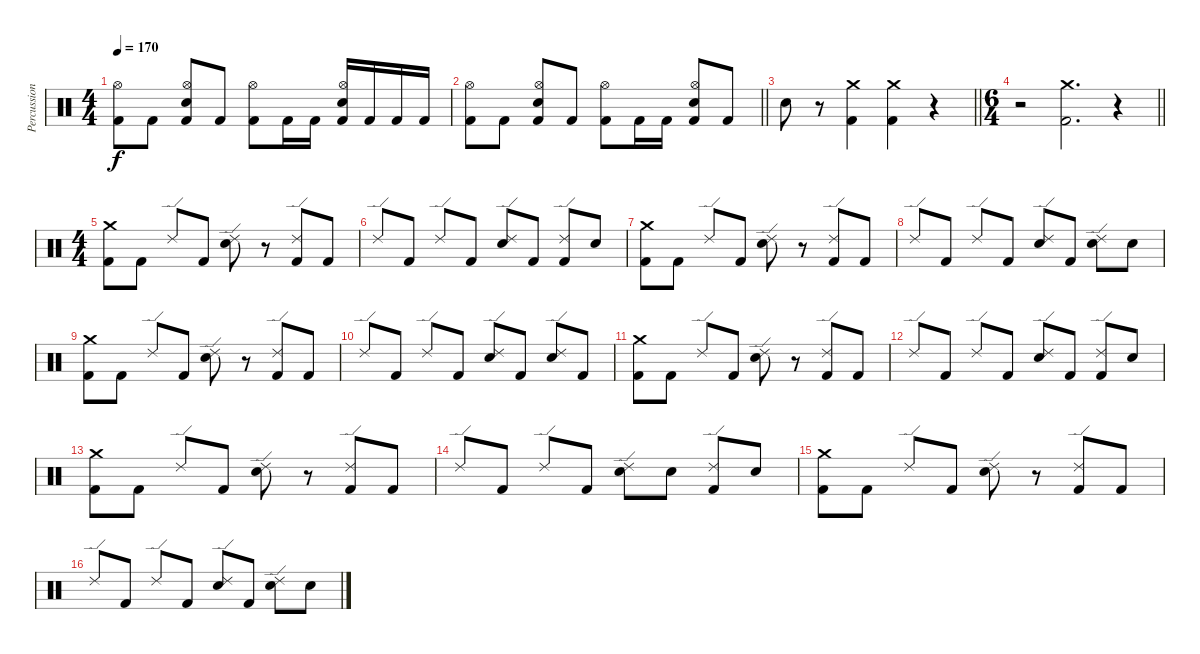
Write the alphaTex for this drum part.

\track ("Percussion" "Percussion") {instrument percussion}
\staff {score}
\articulation defaults
\ts (4 4)
\tempo 170
\clef neutral
\ks c
("Kick (hit) 2" "Hi-Hat (open)").8{dy f} "Kick (hit) 2".8 ("Kick (hit) 2" "Electric Snare (hit)" "Hi-Hat (open)").8 "Kick (hit) 2".8 ("Kick (hit) 2" "Hi-Hat (open)").8 "Kick (hit) 2".16 "Kick (hit) 2".16 ("Kick (hit) 2" "Electric Snare (hit)" "Hi-Hat (open)").16 "Kick (hit) 2".16 "Kick (hit) 2".16 "Kick (hit) 2".16 |
\barLineRight lightlight
("Kick (hit) 2" "Hi-Hat (open)").8 "Kick (hit) 2".8 ("Kick (hit) 2" "Electric Snare (hit)" "Hi-Hat (open)").8 "Kick (hit) 2".8 ("Kick (hit) 2" "Hi-Hat (open)").8 "Kick (hit) 2".16 "Kick (hit) 2".16 ("Kick (hit) 2" "Electric Snare (hit)" "Hi-Hat (open)").8 "Kick (hit) 2".8 |
\barLineRight lightlight "Electric Snare (hit)".8
r.8 ("Crash medium (hit)" "Kick (hit) 2").4 ("Crash medium (hit)" "Kick (hit) 2").4 r.4 |
\ts (6 4)
\barLineRight lightlight
r.2 ("Crash medium (hit)" "Kick (hit) 2").2{d} r.4 |
\ts (4 4)
\section ("" "")
("Crash medium (hit)" "Kick (hit) 2").8 "Kick (hit) 2".8 "Ride (edge) 2".8 "Kick (hit) 2".8 ("Ride (edge) 2" "Electric Snare (hit)").8 r.8 ("Ride (edge) 2" "Kick (hit) 2").8 "Kick (hit) 2".8 |
"Ride (edge) 2".8 "Kick (hit) 2".8 "Ride (edge) 2".8 "Kick (hit) 2".8 ("Electric Snare (hit)" "Ride (edge) 2").8 "Kick (hit) 2".8 ("Kick (hit) 2" "Ride (edge) 2").8 "Electric Snare (hit)".8 |
("Crash medium (hit)" "Kick (hit) 2").8 "Kick (hit) 2".8 "Ride (edge) 2".8 "Kick (hit) 2".8 ("Ride (edge) 2" "Electric Snare (hit)").8 r.8 ("Ride (edge) 2" "Kick (hit) 2").8 "Kick (hit) 2".8 |
"Ride (edge) 2".8 "Kick (hit) 2".8 "Ride (edge) 2".8 "Kick (hit) 2".8 ("Electric Snare (hit)" "Ride (edge) 2").8 "Kick (hit) 2".8 ("Electric Snare (hit)" "Ride (edge) 2").8 "Electric Snare (hit)".8 |
("Crash medium (hit)" "Kick (hit) 2").8 "Kick (hit) 2".8 "Ride (edge) 2".8 "Kick (hit) 2".8 ("Ride (edge) 2" "Electric Snare (hit)").8 r.8 ("Ride (edge) 2" "Kick (hit) 2").8 "Kick (hit) 2".8 |
"Ride (edge) 2".8 "Kick (hit) 2".8 "Ride (edge) 2".8 "Kick (hit) 2".8 ("Electric Snare (hit)" "Ride (edge) 2").8 "Kick (hit) 2".8 ("Electric Snare (hit)" "Ride (edge) 2").8 "Kick (hit) 2".8 |
("Crash medium (hit)" "Kick (hit) 2").8 "Kick (hit) 2".8 "Ride (edge) 2".8 "Kick (hit) 2".8 ("Ride (edge) 2" "Electric Snare (hit)").8 r.8 ("Ride (edge) 2" "Kick (hit) 2").8 "Kick (hit) 2".8 |
"Ride (edge) 2".8 "Kick (hit) 2".8 "Ride (edge) 2".8 "Kick (hit) 2".8 ("Electric Snare (hit)" "Ride (edge) 2").8 "Kick (hit) 2".8 ("Kick (hit) 2" "Ride (edge) 2").8 "Electric Snare (hit)".8 |
("Crash medium (hit)" "Kick (hit) 2").8 "Kick (hit) 2".8 "Ride (edge) 2".8 "Kick (hit) 2".8 ("Ride (edge) 2" "Electric Snare (hit)").8 r.8 ("Ride (edge) 2" "Kick (hit) 2").8 "Kick (hit) 2".8 |
"Ride (edge) 2".8 "Kick (hit) 2".8 "Ride (edge) 2".8 "Kick (hit) 2".8 ("Electric Snare (hit)" "Ride (edge) 2").8 "Electric Snare (hit)".8 ("Kick (hit) 2" "Ride (edge) 2").8 "Electric Snare (hit)".8 |
("Crash medium (hit)" "Kick (hit) 2").8 "Kick (hit) 2".8 "Ride (edge) 2".8 "Kick (hit) 2".8 ("Ride (edge) 2" "Electric Snare (hit)").8 r.8 ("Ride (edge) 2" "Kick (hit) 2").8 "Kick (hit) 2".8 |
"Ride (edge) 2".8 "Kick (hit) 2".8 "Ride (edge) 2".8 "Kick (hit) 2".8 ("Electric Snare (hit)" "Ride (edge) 2").8 "Kick (hit) 2".8 ("Electric Snare (hit)" "Ride (edge) 2").8 "Electric Snare (hit)".8
